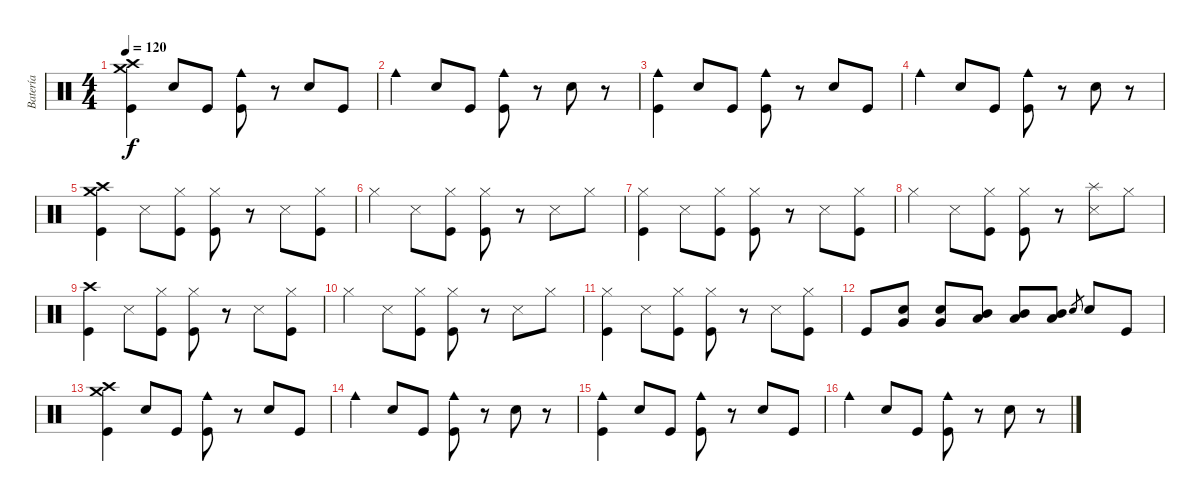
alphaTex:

\track ("Batería" "Batería") {instrument percussion}
\staff {score}
\articulation defaults
\ts (4 4)
\tempo 120
\clef neutral
\ks c
("Crash medium (hit)" "Crash high (hit)" "Kick (hit)").4{dy f} "Electric Snare (hit)".8 "Kick (hit)".8 ("Cowbell medium (hit)" "Kick (hit)").8 r.8 "Electric Snare (hit)".8 "Kick (hit)".8 |
"Cowbell medium (hit)".4 "Electric Snare (hit)".8 "Kick (hit)".8 ("Cowbell medium (hit)" "Kick (hit)").8 r.8 "Electric Snare (hit)".8 r.8 |
("Cowbell medium (hit)" "Kick (hit)").4 "Electric Snare (hit)".8 "Kick (hit)".8 ("Cowbell medium (hit)" "Kick (hit)").8 r.8 "Electric Snare (hit)".8 "Kick (hit)".8 |
"Cowbell medium (hit)".4 "Electric Snare (hit)".8 "Kick (hit)".8 ("Cowbell medium (hit)" "Kick (hit)").8 r.8 "Electric Snare (hit)".8 r.8 |
("Crash high (hit)" "Crash medium (hit)" "Kick (hit)").4 "Snare (side stick) 3".8 ("Hi-Hat (closed)" "Kick (hit)").8 ("Hi-Hat (closed)" "Kick (hit)").8 r.8 "Snare (side stick) 3".8 ("Hi-Hat (closed)" "Kick (hit)").8 |
"Hi-Hat (closed)".4 "Snare (side stick) 3".8 ("Hi-Hat (closed)" "Kick (hit)").8 ("Hi-Hat (closed)" "Kick (hit)").8 r.8 "Snare (side stick) 3".8 "Hi-Hat (closed)".8 |
("Hi-Hat (closed)" "Kick (hit)").4 "Snare (side stick) 3".8 ("Hi-Hat (closed)" "Kick (hit)").8 ("Hi-Hat (closed)" "Kick (hit)").8 r.8 "Snare (side stick) 3".8 ("Hi-Hat (closed)" "Kick (hit)").8 |
"Hi-Hat (closed)".4 "Snare (side stick) 3".8 ("Hi-Hat (closed)" "Kick (hit)").8 ("Hi-Hat (closed)" "Kick (hit)").8 r.8 ("Splash (hit)" "Snare (side stick) 3").8 "Hi-Hat (closed)".8 |
("Crash high (hit)" "Kick (hit)").4 "Snare (side stick) 3".8 ("Hi-Hat (closed)" "Kick (hit)").8 ("Hi-Hat (closed)" "Kick (hit)").8 r.8 "Snare (side stick) 3".8 ("Hi-Hat (closed)" "Kick (hit)").8 |
"Hi-Hat (closed)".4 "Snare (side stick) 3".8 ("Hi-Hat (closed)" "Kick (hit)").8 ("Hi-Hat (closed)" "Kick (hit)").8 r.8 "Snare (side stick) 3".8 "Hi-Hat (closed)".8 |
("Hi-Hat (closed)" "Kick (hit)").4 "Snare (side stick) 3".8 ("Hi-Hat (closed)" "Kick (hit)").8 ("Hi-Hat (closed)" "Kick (hit)").8 r.8 "Snare (side stick) 3".8 ("Hi-Hat (closed)" "Kick (hit)").8 |
"Kick (hit)".8 ("Very Low Tom (hit)" "Electric Snare (hit)").8 ("Very Low Tom (hit)" "Electric Snare (hit)").8 ("Low Tom (hit)" "Mid Tom (hit)").8 ("Low Tom (hit)" "Mid Tom (hit)").8 ("Low Tom (hit)" "Mid Tom (hit)").8 "Electric Snare (hit)".8{gr} "Electric Snare (hit)".8 "Kick (hit)".8 |
("Crash medium (hit)" "Crash high (hit)" "Kick (hit)").4 "Electric Snare (hit)".8 "Kick (hit)".8 ("Cowbell medium (hit)" "Kick (hit)").8 r.8 "Electric Snare (hit)".8 "Kick (hit)".8 |
"Cowbell medium (hit)".4 "Electric Snare (hit)".8 "Kick (hit)".8 ("Cowbell medium (hit)" "Kick (hit)").8 r.8 "Electric Snare (hit)".8 r.8 |
("Cowbell medium (hit)" "Kick (hit)").4 "Electric Snare (hit)".8 "Kick (hit)".8 ("Cowbell medium (hit)" "Kick (hit)").8 r.8 "Electric Snare (hit)".8 "Kick (hit)".8 |
"Cowbell medium (hit)".4 "Electric Snare (hit)".8 "Kick (hit)".8 ("Cowbell medium (hit)" "Kick (hit)").8 r.8 "Electric Snare (hit)".8 r.8
